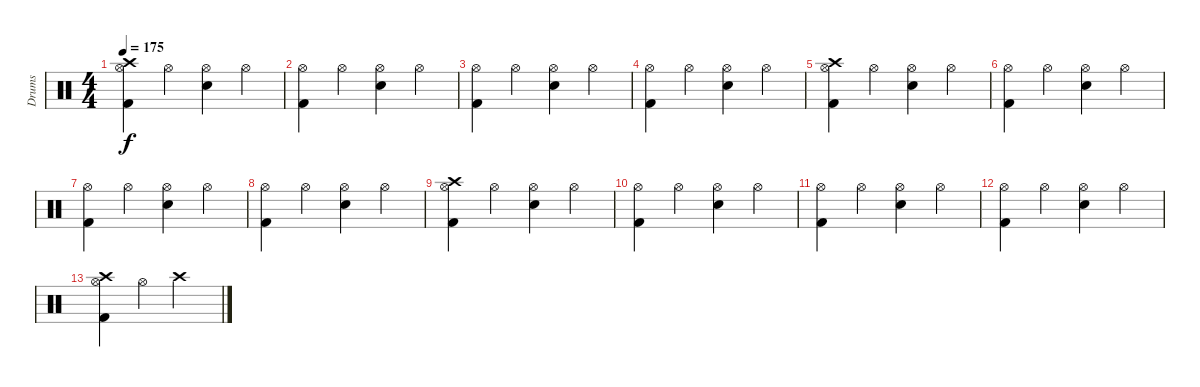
\track ("Drums" "Drums") {instrument percussion}
\staff {score}
\articulation defaults
\ts (4 4)
\tempo 175
\clef neutral
\ks c
("Crash high (hit)" "Hi-Hat (open)" "Kick (hit) 2").4{dy f} "Hi-Hat (open)".4 ("Hi-Hat (open)" "Snare (hit) 2").4 "Hi-Hat (open)".4 |
("Hi-Hat (open)" "Kick (hit) 2").4 "Hi-Hat (open)".4 ("Hi-Hat (open)" "Snare (hit) 2").4 "Hi-Hat (open)".4 |
("Hi-Hat (open)" "Kick (hit) 2").4 "Hi-Hat (open)".4 ("Hi-Hat (open)" "Snare (hit) 2").4 "Hi-Hat (open)".4 |
("Hi-Hat (open)" "Kick (hit) 2").4 "Hi-Hat (open)".4 ("Hi-Hat (open)" "Snare (hit) 2").4 "Hi-Hat (open)".4 |
("Crash high (hit)" "Hi-Hat (open)" "Kick (hit) 2").4 "Hi-Hat (open)".4 ("Hi-Hat (open)" "Snare (hit) 2").4 "Hi-Hat (open)".4 |
("Hi-Hat (open)" "Kick (hit) 2").4 "Hi-Hat (open)".4 ("Hi-Hat (open)" "Snare (hit) 2").4 "Hi-Hat (open)".4 |
("Hi-Hat (open)" "Kick (hit) 2").4 "Hi-Hat (open)".4 ("Hi-Hat (open)" "Snare (hit) 2").4 "Hi-Hat (open)".4 |
("Hi-Hat (open)" "Kick (hit) 2").4 "Hi-Hat (open)".4 ("Hi-Hat (open)" "Snare (hit) 2").4 "Hi-Hat (open)".4 |
("Crash high (hit)" "Hi-Hat (open)" "Kick (hit) 2").4 "Hi-Hat (open)".4 ("Hi-Hat (open)" "Snare (hit) 2").4 "Hi-Hat (open)".4 |
("Hi-Hat (open)" "Kick (hit) 2").4 "Hi-Hat (open)".4 ("Hi-Hat (open)" "Snare (hit) 2").4 "Hi-Hat (open)".4 |
("Hi-Hat (open)" "Kick (hit) 2").4 "Hi-Hat (open)".4 ("Hi-Hat (open)" "Snare (hit) 2").4 "Hi-Hat (open)".4 |
("Hi-Hat (open)" "Kick (hit) 2").4 "Hi-Hat (open)".4 ("Hi-Hat (open)" "Snare (hit) 2").4 "Hi-Hat (open)".4 |
("Crash high (hit)" "Hi-Hat (open)" "Kick (hit) 2").4 "Hi-Hat (open)".4 "Crash high (hit)".2
